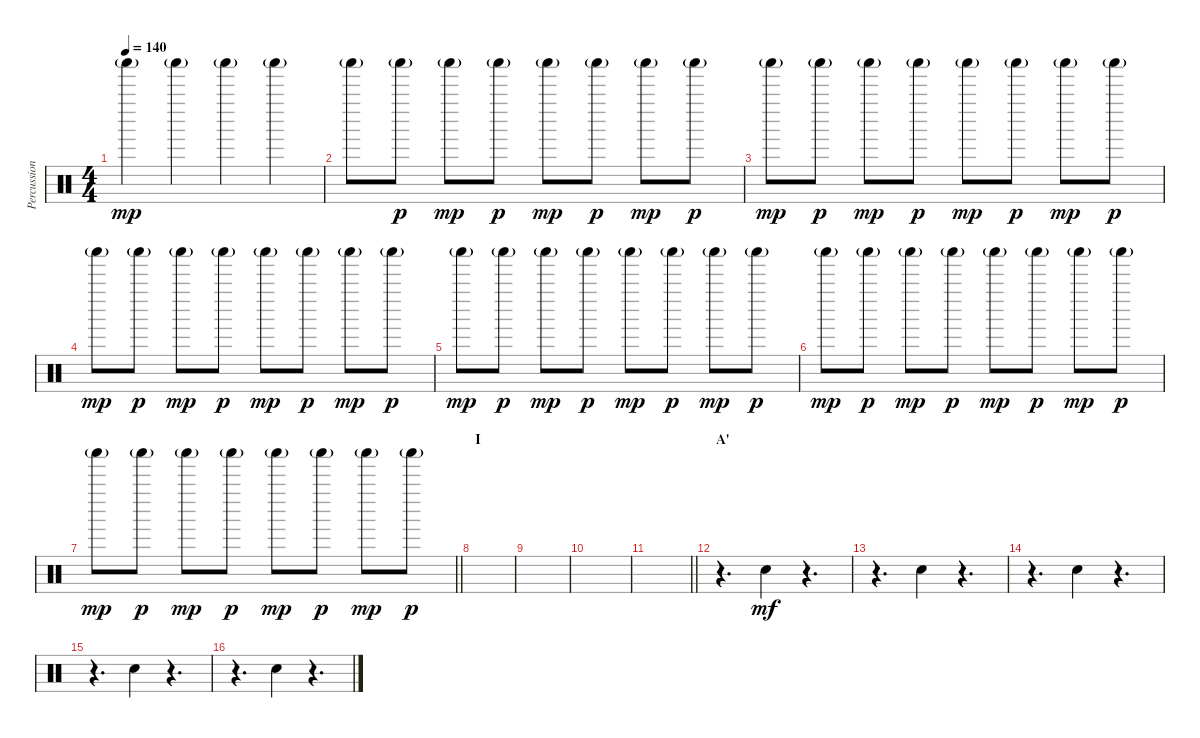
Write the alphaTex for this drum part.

\track ("Percussion" "Percussion") {instrument percussion}
\staff {score}
\articulation defaults
\ts (4 4)
\tempo 140
\clef neutral
\ks c "Shaker (hit)"{g}.4{dy mp} "Shaker (hit)"{g}.4 "Shaker (hit)"{g}.4 "Shaker (hit)"{g}.4
|
"Shaker (hit)"{g}.8 "Shaker (hit)"{g}.8{dy p} "Shaker (hit)"{g}.8{dy mp} "Shaker (hit)"{g}.8{dy p} "Shaker (hit)"{g}.8{dy mp} "Shaker (hit)"{g}.8{dy p} "Shaker (hit)"{g}.8{dy mp} "Shaker (hit)"{g}.8{dy p} |
"Shaker (hit)"{g}.8{dy mp} "Shaker (hit)"{g}.8{dy p} "Shaker (hit)"{g}.8{dy mp} "Shaker (hit)"{g}.8{dy p} "Shaker (hit)"{g}.8{dy mp} "Shaker (hit)"{g}.8{dy p} "Shaker (hit)"{g}.8{dy mp} "Shaker (hit)"{g}.8{dy p} |
"Shaker (hit)"{g}.8{dy mp} "Shaker (hit)"{g}.8{dy p} "Shaker (hit)"{g}.8{dy mp} "Shaker (hit)"{g}.8{dy p} "Shaker (hit)"{g}.8{dy mp} "Shaker (hit)"{g}.8{dy p} "Shaker (hit)"{g}.8{dy mp} "Shaker (hit)"{g}.8{dy p} |
"Shaker (hit)"{g}.8{dy mp} "Shaker (hit)"{g}.8{dy p} "Shaker (hit)"{g}.8{dy mp} "Shaker (hit)"{g}.8{dy p} "Shaker (hit)"{g}.8{dy mp} "Shaker (hit)"{g}.8{dy p} "Shaker (hit)"{g}.8{dy mp} "Shaker (hit)"{g}.8{dy p} |
"Shaker (hit)"{g}.8{dy mp} "Shaker (hit)"{g}.8{dy p} "Shaker (hit)"{g}.8{dy mp} "Shaker (hit)"{g}.8{dy p} "Shaker (hit)"{g}.8{dy mp} "Shaker (hit)"{g}.8{dy p} "Shaker (hit)"{g}.8{dy mp} "Shaker (hit)"{g}.8{dy p} |
\barLineRight lightlight "Shaker (hit)"{g}.8{dy mp} "Shaker (hit)"{g}.8{dy p} "Shaker (hit)"{g}.8{dy mp} "Shaker (hit)"{g}.8{dy p} "Shaker (hit)"{g}.8{dy mp} "Shaker (hit)"{g}.8{dy p} "Shaker (hit)"{g}.8{dy mp} "Shaker (hit)"{g}.8{dy p}
|
\section ("" "I")
|
|
|
\barLineRight lightlight
|
\section ("" "A'")
r.4{d} "Hand Clap (hit)".4{dy mf} r.4{d} |
r.4{d} "Hand Clap (hit)".4 r.4{d} |
r.4{d} "Hand Clap (hit)".4 r.4{d} |
r.4{d} "Hand Clap (hit)".4 r.4{d} |
r.4{d} "Hand Clap (hit)".4 r.4{d}
